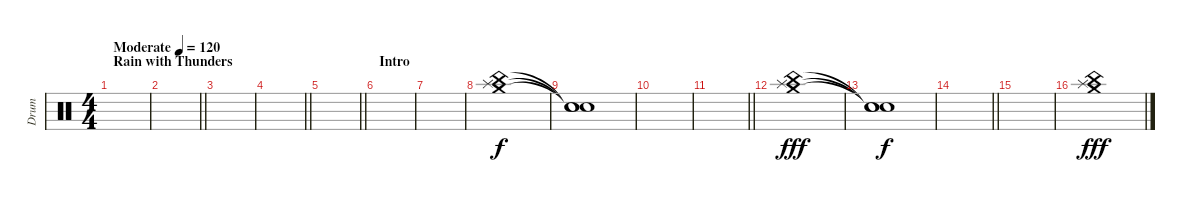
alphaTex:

\track ("Drum " "Drum ") {instrument percussion}
\staff {score}
\articulation defaults
\ts (4 4)
\section ("" "Rain with Thunders")
\tempo (120 "Moderate")
\clef neutral
\ks c
|
\barLineRight lightlight
|
|
\barLineRight lightlight
|
\barLineRight lightlight
|
\section ("" "Intro ")
|
|
("China (hit)" "Splash (hit)" "Crash medium (hit)").1 |
("Snare (hit)"{t} "Snare (hit)"{t} "Snare (hit)"{t}).1{dy f} |
|
\barLineRight lightlight
|
("China (hit)" "Splash (hit)" "Crash medium (hit)").1{dy fff} |
("Snare (hit)"{t} "Snare (hit)"{t} "Snare (hit)"{t}).1{dy f} |
\barLineRight lightlight
|
|
("China (hit)" "Splash (hit)" "Crash medium (hit)").1{dy fff}
